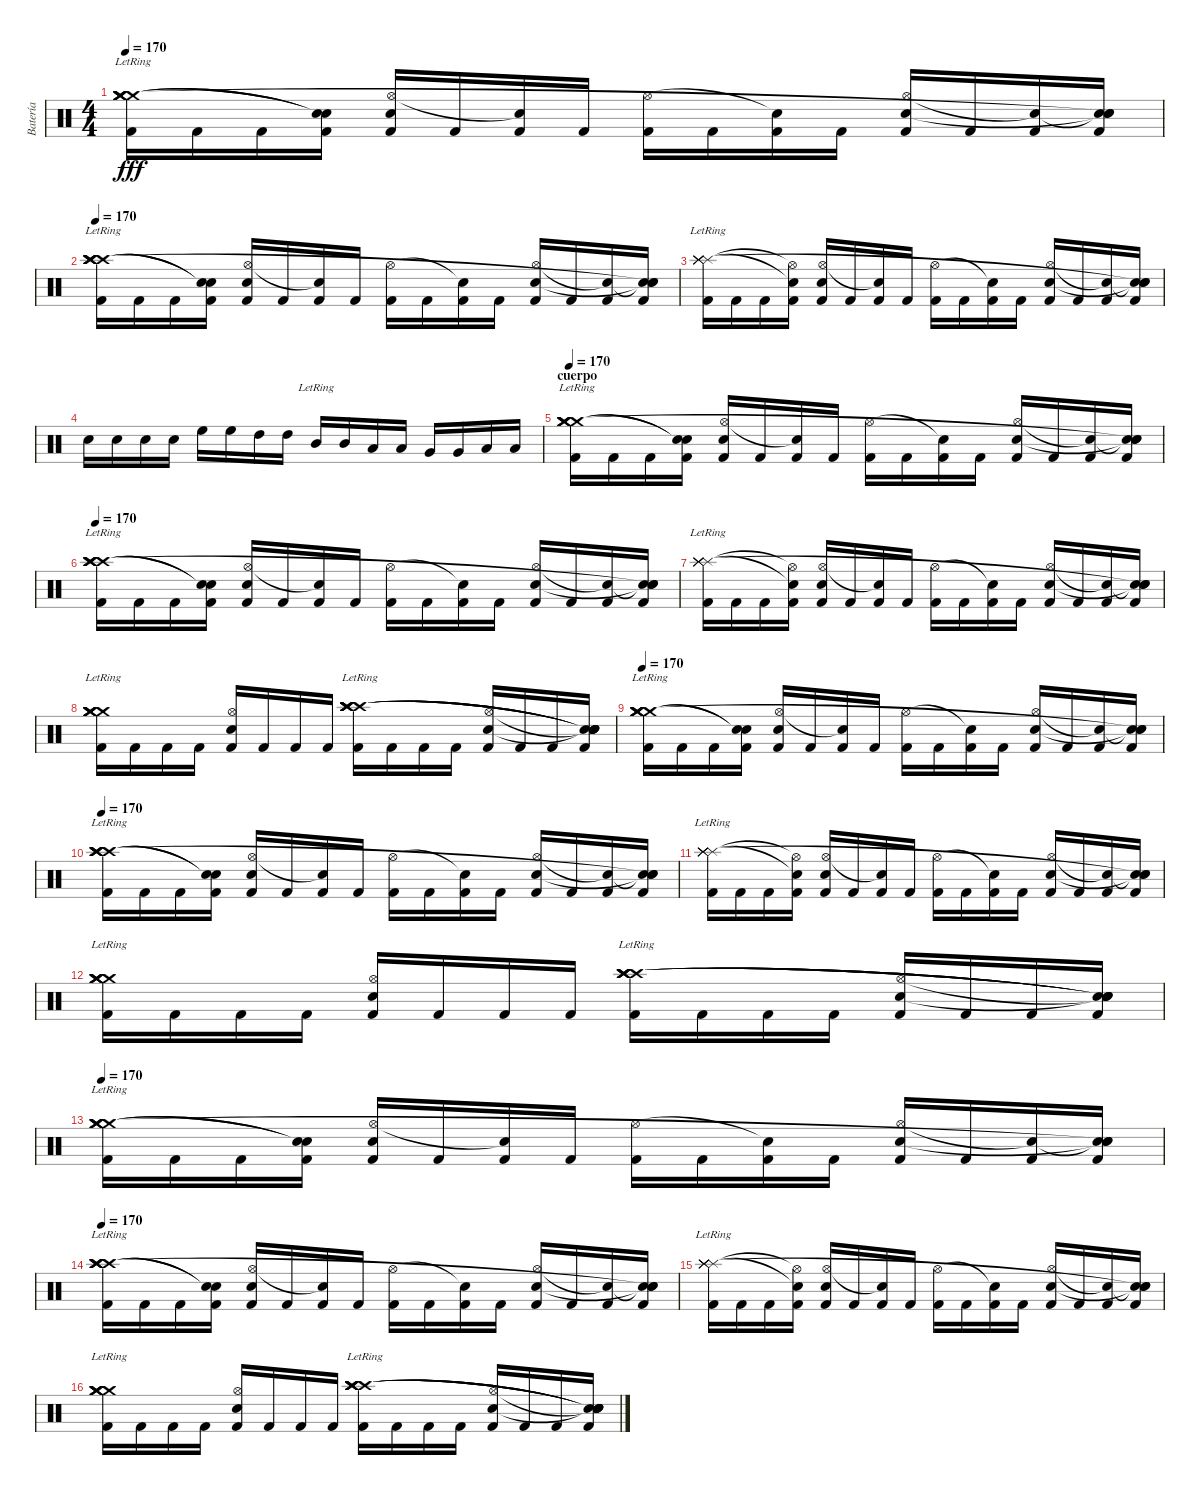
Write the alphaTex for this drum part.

\track ("Batería" "Batería") {instrument percussion}
\staff {score}
\articulation defaults
\ts (4 4)
\tempo 170
\clef neutral
\ks c
("Kick (hit) 2" "Crash medium (hit)"{lr} "Crash medium (hit)"{lr} "Crash medium (hit)"{lr} "Crash medium (hit)"{lr} "Crash medium (hit)"{lr}).16{dy fff} "Kick (hit) 2".16 "Kick (hit) 2".16 ("Kick (hit) 2" "Snare (hit)"{t} "Snare (hit)"{t}).16 ("Kick (hit) 2" "Hi-Hat (open)" "Electric Snare (hit)").16 "Kick (hit) 2".16 ("Kick (hit) 2" "Snare (hit)"{t}).16 "Kick (hit) 2".16 ("Kick (hit) 2" "Hi-Hat (open)").16 "Kick (hit) 2".16 ("Kick (hit) 2" "Snare (hit)"{t}).16 "Kick (hit) 2".16 ("Kick (hit) 2" "Hi-Hat (open)" "Electric Snare (hit)").16 "Kick (hit) 2".16 ("Kick (hit) 2" "Snare (hit)"{t}).16 ("Kick (hit) 2" "Snare (hit)"{t} "Snare (hit)"{t} "Snare (hit)"{t}).16 |
\tempo 170
("Kick (hit) 2" "Crash high (hit)"{lr} "Crash high (hit)"{lr} "Crash high (hit)"{lr} "Crash high (hit)"{lr} "Crash high (hit)"{lr}).16 "Kick (hit) 2".16 "Kick (hit) 2".16 ("Kick (hit) 2" "Snare (hit)"{t} "Snare (hit)"{t}).16 ("Kick (hit) 2" "Hi-Hat (open)" "Electric Snare (hit)").16 "Kick (hit) 2".16 ("Kick (hit) 2" "Snare (hit)"{t}).16 "Kick (hit) 2".16 ("Kick (hit) 2" "Hi-Hat (open)").16 "Kick (hit) 2".16 ("Kick (hit) 2" "Snare (hit)"{t}).16 "Kick (hit) 2".16 ("Kick (hit) 2" "Hi-Hat (open)" "Electric Snare (hit)").16 "Kick (hit) 2".16 ("Kick (hit) 2" "Snare (hit)"{t}).16 ("Kick (hit) 2" "Snare (hit)"{t} "Snare (hit)"{t} "Snare (hit)"{t}).16 |
("Kick (hit) 2"{lr} "Splash (hit)"{lr} "Splash (hit)"{lr} "Splash (hit)"{lr} "Splash (hit)"{lr} "Splash (hit)"{lr}).16 "Kick (hit) 2".16 "Kick (hit) 2".16 ("Kick (hit) 2" "Hi-Hat (open)"{t} "Snare (hit)"{t}).16 ("Kick (hit) 2" "Hi-Hat (open)" "Electric Snare (hit)").16 "Kick (hit) 2".16 ("Kick (hit) 2" "Snare (hit)"{t}).16 "Kick (hit) 2".16 ("Kick (hit) 2" "Hi-Hat (open)").16 "Kick (hit) 2".16 ("Kick (hit) 2" "Snare (hit)"{t}).16 "Kick (hit) 2".16 ("Kick (hit) 2" "Hi-Hat (open)" "Electric Snare (hit)").16 "Kick (hit) 2".16 ("Kick (hit) 2" "Snare (hit)"{t}).16 ("Kick (hit) 2" "Snare (hit)"{t} "Snare (hit)"{t} "Snare (hit)"{t}).16 |
"Electric Snare (hit)".16 "Electric Snare (hit)".16 "Electric Snare (hit)".16 "Electric Snare (hit)".16 "High Floor Tom (hit)".16 "High Floor Tom (hit)".16 "High Tom (hit)".16 "High Tom (hit)".16 "Mid Tom (hit)"{lr}.16 "Mid Tom (hit)".16 "Low Tom (hit)".16 "Low Tom (hit)".16 "Very Low Tom (hit)".16 "Very Low Tom (hit)".16 "Low Floor Tom (hit)".16 "Low Floor Tom (hit)".16 |
\section ("" "cuerpo")
\tempo 170
("Kick (hit) 2" "Crash medium (hit)"{lr} "Crash medium (hit)"{lr} "Crash medium (hit)"{lr} "Crash medium (hit)"{lr} "Crash medium (hit)"{lr}).16 "Kick (hit) 2".16 "Kick (hit) 2".16 ("Kick (hit) 2" "Snare (hit)"{t} "Snare (hit)"{t}).16 ("Kick (hit) 2" "Hi-Hat (open)" "Electric Snare (hit)").16 "Kick (hit) 2".16 ("Kick (hit) 2" "Snare (hit)"{t}).16 "Kick (hit) 2".16 ("Kick (hit) 2" "Hi-Hat (open)").16 "Kick (hit) 2".16 ("Kick (hit) 2" "Snare (hit)"{t}).16 "Kick (hit) 2".16 ("Kick (hit) 2" "Hi-Hat (open)" "Electric Snare (hit)").16 "Kick (hit) 2".16 ("Kick (hit) 2" "Snare (hit)"{t}).16 ("Kick (hit) 2" "Snare (hit)"{t} "Snare (hit)"{t} "Snare (hit)"{t}).16 |
\tempo 170
("Kick (hit) 2" "Crash high (hit)"{lr} "Crash high (hit)"{lr} "Crash high (hit)"{lr} "Crash high (hit)"{lr} "Crash high (hit)"{lr}).16 "Kick (hit) 2".16 "Kick (hit) 2".16 ("Kick (hit) 2" "Snare (hit)"{t} "Snare (hit)"{t}).16 ("Kick (hit) 2" "Hi-Hat (open)" "Electric Snare (hit)").16 "Kick (hit) 2".16 ("Kick (hit) 2" "Snare (hit)"{t}).16 "Kick (hit) 2".16 ("Kick (hit) 2" "Hi-Hat (open)").16 "Kick (hit) 2".16 ("Kick (hit) 2" "Snare (hit)"{t}).16 "Kick (hit) 2".16 ("Kick (hit) 2" "Hi-Hat (open)" "Electric Snare (hit)").16 "Kick (hit) 2".16 ("Kick (hit) 2" "Snare (hit)"{t}).16 ("Kick (hit) 2" "Snare (hit)"{t} "Snare (hit)"{t} "Snare (hit)"{t}).16 |
("Kick (hit) 2"{lr} "Splash (hit)"{lr} "Splash (hit)"{lr} "Splash (hit)"{lr} "Splash (hit)"{lr} "Splash (hit)"{lr}).16 "Kick (hit) 2".16 "Kick (hit) 2".16 ("Kick (hit) 2" "Hi-Hat (open)"{t} "Snare (hit)"{t}).16 ("Kick (hit) 2" "Hi-Hat (open)" "Electric Snare (hit)").16 "Kick (hit) 2".16 ("Kick (hit) 2" "Snare (hit)"{t}).16 "Kick (hit) 2".16 ("Kick (hit) 2" "Hi-Hat (open)").16 "Kick (hit) 2".16 ("Kick (hit) 2" "Snare (hit)"{t}).16 "Kick (hit) 2".16 ("Kick (hit) 2" "Hi-Hat (open)" "Electric Snare (hit)").16 "Kick (hit) 2".16 ("Kick (hit) 2" "Snare (hit)"{t}).16 ("Kick (hit) 2" "Snare (hit)"{t} "Snare (hit)"{t} "Snare (hit)"{t}).16 |
("Kick (hit) 2" "Crash medium (hit)"{lr} "Crash medium (hit)"{lr} "Crash medium (hit)"{lr} "Crash medium (hit)"{lr} "Crash medium (hit)"{lr}).16 "Kick (hit) 2".16 "Kick (hit) 2".16 "Kick (hit) 2".16 ("Kick (hit) 2" "Hi-Hat (open)" "Electric Snare (hit)").16 "Kick (hit) 2".16 "Kick (hit) 2".16 "Kick (hit) 2".16 ("Kick (hit) 2"{lr} "Crash high (hit)"{lr} "Crash high (hit)"{lr} "Crash high (hit)"{lr} "Crash high (hit)"{lr} "Crash high (hit)"{lr}).16 "Kick (hit) 2".16 "Kick (hit) 2".16 "Kick (hit) 2".16 ("Kick (hit) 2" "Hi-Hat (open)" "Electric Snare (hit)").16 "Kick (hit) 2".16 "Kick (hit) 2".16 ("Kick (hit) 2" "Snare (hit)"{t} "Snare (hit)"{t} "Snare (hit)"{t} "Snare (hit)"{t} "Snare (hit)"{t}).16 |
\tempo 170
("Kick (hit) 2" "Crash medium (hit)"{lr} "Crash medium (hit)"{lr} "Crash medium (hit)"{lr} "Crash medium (hit)"{lr} "Crash medium (hit)"{lr}).16 "Kick (hit) 2".16 "Kick (hit) 2".16 ("Kick (hit) 2" "Snare (hit)"{t} "Snare (hit)"{t}).16 ("Kick (hit) 2" "Hi-Hat (open)" "Electric Snare (hit)").16 "Kick (hit) 2".16 ("Kick (hit) 2" "Snare (hit)"{t}).16 "Kick (hit) 2".16 ("Kick (hit) 2" "Hi-Hat (open)").16 "Kick (hit) 2".16 ("Kick (hit) 2" "Snare (hit)"{t}).16 "Kick (hit) 2".16 ("Kick (hit) 2" "Hi-Hat (open)" "Electric Snare (hit)").16 "Kick (hit) 2".16 ("Kick (hit) 2" "Snare (hit)"{t}).16 ("Kick (hit) 2" "Snare (hit)"{t} "Snare (hit)"{t} "Snare (hit)"{t}).16 |
\tempo 170
("Kick (hit) 2" "Crash high (hit)"{lr} "Crash high (hit)"{lr} "Crash high (hit)"{lr} "Crash high (hit)"{lr} "Crash high (hit)"{lr}).16 "Kick (hit) 2".16 "Kick (hit) 2".16 ("Kick (hit) 2" "Snare (hit)"{t} "Snare (hit)"{t}).16 ("Kick (hit) 2" "Hi-Hat (open)" "Electric Snare (hit)").16 "Kick (hit) 2".16 ("Kick (hit) 2" "Snare (hit)"{t}).16 "Kick (hit) 2".16 ("Kick (hit) 2" "Hi-Hat (open)").16 "Kick (hit) 2".16 ("Kick (hit) 2" "Snare (hit)"{t}).16 "Kick (hit) 2".16 ("Kick (hit) 2" "Hi-Hat (open)" "Electric Snare (hit)").16 "Kick (hit) 2".16 ("Kick (hit) 2" "Snare (hit)"{t}).16 ("Kick (hit) 2" "Snare (hit)"{t} "Snare (hit)"{t} "Snare (hit)"{t}).16 |
("Kick (hit) 2"{lr} "Splash (hit)"{lr} "Splash (hit)"{lr} "Splash (hit)"{lr} "Splash (hit)"{lr} "Splash (hit)"{lr}).16 "Kick (hit) 2".16 "Kick (hit) 2".16 ("Kick (hit) 2" "Hi-Hat (open)"{t} "Snare (hit)"{t}).16 ("Kick (hit) 2" "Hi-Hat (open)" "Electric Snare (hit)").16 "Kick (hit) 2".16 ("Kick (hit) 2" "Snare (hit)"{t}).16 "Kick (hit) 2".16 ("Kick (hit) 2" "Hi-Hat (open)").16 "Kick (hit) 2".16 ("Kick (hit) 2" "Snare (hit)"{t}).16 "Kick (hit) 2".16 ("Kick (hit) 2" "Hi-Hat (open)" "Electric Snare (hit)").16 "Kick (hit) 2".16 ("Kick (hit) 2" "Snare (hit)"{t}).16 ("Kick (hit) 2" "Snare (hit)"{t} "Snare (hit)"{t} "Snare (hit)"{t}).16 |
("Kick (hit) 2" "Crash medium (hit)"{lr} "Crash medium (hit)"{lr} "Crash medium (hit)"{lr} "Crash medium (hit)"{lr} "Crash medium (hit)"{lr}).16 "Kick (hit) 2".16 "Kick (hit) 2".16 "Kick (hit) 2".16 ("Kick (hit) 2" "Hi-Hat (open)" "Electric Snare (hit)").16 "Kick (hit) 2".16 "Kick (hit) 2".16 "Kick (hit) 2".16 ("Kick (hit) 2"{lr} "Crash high (hit)"{lr} "Crash high (hit)"{lr} "Crash high (hit)"{lr} "Crash high (hit)"{lr} "Crash high (hit)"{lr}).16 "Kick (hit) 2".16 "Kick (hit) 2".16 "Kick (hit) 2".16 ("Kick (hit) 2" "Hi-Hat (open)" "Electric Snare (hit)").16 "Kick (hit) 2".16 "Kick (hit) 2".16 ("Kick (hit) 2" "Snare (hit)"{t} "Snare (hit)"{t} "Snare (hit)"{t} "Snare (hit)"{t} "Snare (hit)"{t}).16 |
\tempo 170
("Kick (hit) 2" "Crash medium (hit)"{lr} "Crash medium (hit)"{lr} "Crash medium (hit)"{lr} "Crash medium (hit)"{lr} "Crash medium (hit)"{lr}).16 "Kick (hit) 2".16 "Kick (hit) 2".16 ("Kick (hit) 2" "Snare (hit)"{t} "Snare (hit)"{t}).16 ("Kick (hit) 2" "Hi-Hat (open)" "Electric Snare (hit)").16 "Kick (hit) 2".16 ("Kick (hit) 2" "Snare (hit)"{t}).16 "Kick (hit) 2".16 ("Kick (hit) 2" "Hi-Hat (open)").16 "Kick (hit) 2".16 ("Kick (hit) 2" "Snare (hit)"{t}).16 "Kick (hit) 2".16 ("Kick (hit) 2" "Hi-Hat (open)" "Electric Snare (hit)").16 "Kick (hit) 2".16 ("Kick (hit) 2" "Snare (hit)"{t}).16 ("Kick (hit) 2" "Snare (hit)"{t} "Snare (hit)"{t} "Snare (hit)"{t}).16 |
\tempo 170
("Kick (hit) 2" "Crash high (hit)"{lr} "Crash high (hit)"{lr} "Crash high (hit)"{lr} "Crash high (hit)"{lr} "Crash high (hit)"{lr}).16 "Kick (hit) 2".16 "Kick (hit) 2".16 ("Kick (hit) 2" "Snare (hit)"{t} "Snare (hit)"{t}).16 ("Kick (hit) 2" "Hi-Hat (open)" "Electric Snare (hit)").16 "Kick (hit) 2".16 ("Kick (hit) 2" "Snare (hit)"{t}).16 "Kick (hit) 2".16 ("Kick (hit) 2" "Hi-Hat (open)").16 "Kick (hit) 2".16 ("Kick (hit) 2" "Snare (hit)"{t}).16 "Kick (hit) 2".16 ("Kick (hit) 2" "Hi-Hat (open)" "Electric Snare (hit)").16 "Kick (hit) 2".16 ("Kick (hit) 2" "Snare (hit)"{t}).16 ("Kick (hit) 2" "Snare (hit)"{t} "Snare (hit)"{t} "Snare (hit)"{t}).16 |
("Kick (hit) 2"{lr} "Splash (hit)"{lr} "Splash (hit)"{lr} "Splash (hit)"{lr} "Splash (hit)"{lr} "Splash (hit)"{lr}).16 "Kick (hit) 2".16 "Kick (hit) 2".16 ("Kick (hit) 2" "Hi-Hat (open)"{t} "Snare (hit)"{t}).16 ("Kick (hit) 2" "Hi-Hat (open)" "Electric Snare (hit)").16 "Kick (hit) 2".16 ("Kick (hit) 2" "Snare (hit)"{t}).16 "Kick (hit) 2".16 ("Kick (hit) 2" "Hi-Hat (open)").16 "Kick (hit) 2".16 ("Kick (hit) 2" "Snare (hit)"{t}).16 "Kick (hit) 2".16 ("Kick (hit) 2" "Hi-Hat (open)" "Electric Snare (hit)").16 "Kick (hit) 2".16 ("Kick (hit) 2" "Snare (hit)"{t}).16 ("Kick (hit) 2" "Snare (hit)"{t} "Snare (hit)"{t} "Snare (hit)"{t}).16 |
("Kick (hit) 2" "Crash medium (hit)"{lr} "Crash medium (hit)"{lr} "Crash medium (hit)"{lr} "Crash medium (hit)"{lr} "Crash medium (hit)"{lr}).16 "Kick (hit) 2".16 "Kick (hit) 2".16 "Kick (hit) 2".16 ("Kick (hit) 2" "Hi-Hat (open)" "Electric Snare (hit)").16 "Kick (hit) 2".16 "Kick (hit) 2".16 "Kick (hit) 2".16 ("Kick (hit) 2"{lr} "Crash high (hit)"{lr} "Crash high (hit)"{lr} "Crash high (hit)"{lr} "Crash high (hit)"{lr} "Crash high (hit)"{lr}).16 "Kick (hit) 2".16 "Kick (hit) 2".16 "Kick (hit) 2".16 ("Kick (hit) 2" "Hi-Hat (open)" "Electric Snare (hit)").16 "Kick (hit) 2".16 "Kick (hit) 2".16 ("Kick (hit) 2" "Snare (hit)"{t} "Snare (hit)"{t} "Snare (hit)"{t} "Snare (hit)"{t} "Snare (hit)"{t}).16
